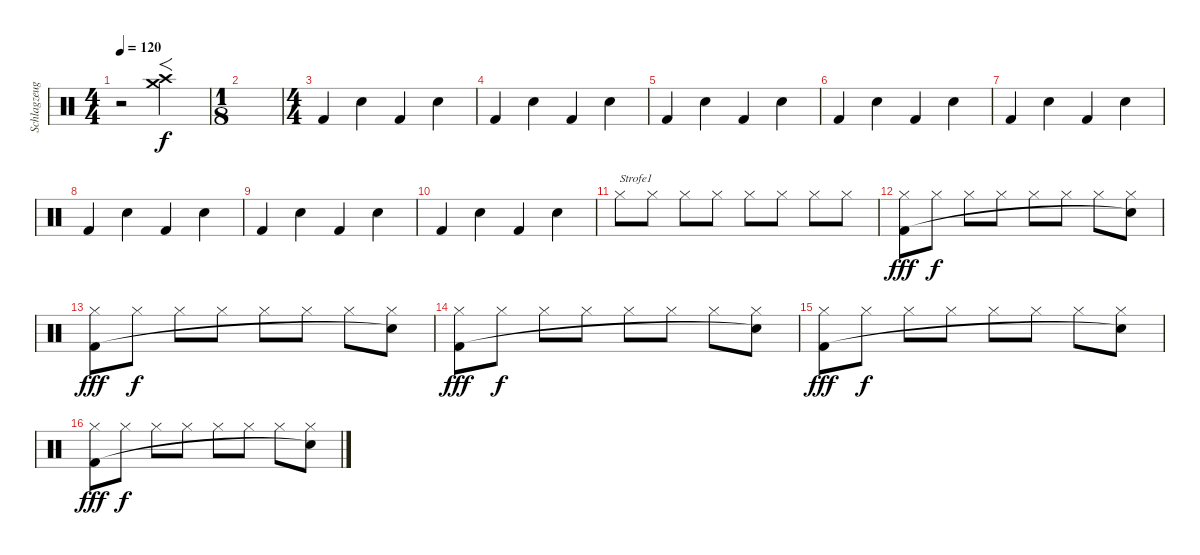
\track ("Schlagzeug" "Schlagzeug") {instrument percussion}
\staff {score}
\articulation defaults
\ts (4 4)
\tempo 120
\clef neutral
\ks c
r.2{dy f} ("Crash medium (hit)" "Crash high (hit)").2{f} |
\ts (1 8)
|
\ts (4 4)
"Kick (hit) 2".4 "Snare (hit) 2".4 "Kick (hit) 2".4 "Snare (hit) 2".4 |
"Kick (hit) 2".4 "Snare (hit) 2".4 "Kick (hit) 2".4 "Snare (hit) 2".4 |
"Kick (hit) 2".4 "Snare (hit) 2".4 "Kick (hit) 2".4 "Snare (hit) 2".4 |
"Kick (hit) 2".4 "Snare (hit) 2".4 "Kick (hit) 2".4 "Snare (hit) 2".4 |
"Kick (hit) 2".4 "Snare (hit) 2".4 "Kick (hit) 2".4 "Snare (hit) 2".4 |
"Kick (hit) 2".4 "Snare (hit) 2".4 "Kick (hit) 2".4 "Snare (hit) 2".4 |
"Kick (hit) 2".4 "Snare (hit) 2".4 "Kick (hit) 2".4 "Snare (hit) 2".4 |
"Kick (hit) 2".4 "Snare (hit) 2".4 "Kick (hit) 2".4 "Snare (hit) 2".4 |
"Hi-Hat (closed)".8{txt "Strofe1"} "Hi-Hat (closed)".8 "Hi-Hat (closed)".8 "Hi-Hat (closed)".8 "Hi-Hat (closed)".8 "Hi-Hat (closed)".8 "Hi-Hat (closed)".8 "Hi-Hat (closed)".8 |
("Hi-Hat (closed)" "Kick (hit) 2").8{dy fff} "Hi-Hat (closed)".8{dy f} "Hi-Hat (closed)".8 "Hi-Hat (closed)".8 "Hi-Hat (closed)".8 "Hi-Hat (closed)".8 "Hi-Hat (closed)".8 ("Hi-Hat (closed)" "Snare (hit)"{t}).8 |
("Hi-Hat (closed)" "Kick (hit) 2").8{dy fff} "Hi-Hat (closed)".8{dy f} "Hi-Hat (closed)".8 "Hi-Hat (closed)".8 "Hi-Hat (closed)".8 "Hi-Hat (closed)".8 "Hi-Hat (closed)".8 ("Hi-Hat (closed)" "Snare (hit)"{t}).8 |
("Hi-Hat (closed)" "Kick (hit) 2").8{dy fff} "Hi-Hat (closed)".8{dy f} "Hi-Hat (closed)".8 "Hi-Hat (closed)".8 "Hi-Hat (closed)".8 "Hi-Hat (closed)".8 "Hi-Hat (closed)".8 ("Hi-Hat (closed)" "Snare (hit)"{t}).8 |
("Hi-Hat (closed)" "Kick (hit) 2").8{dy fff} "Hi-Hat (closed)".8{dy f} "Hi-Hat (closed)".8 "Hi-Hat (closed)".8 "Hi-Hat (closed)".8 "Hi-Hat (closed)".8 "Hi-Hat (closed)".8 ("Hi-Hat (closed)" "Snare (hit)"{t}).8 |
("Hi-Hat (closed)" "Kick (hit) 2").8{dy fff} "Hi-Hat (closed)".8{dy f} "Hi-Hat (closed)".8 "Hi-Hat (closed)".8 "Hi-Hat (closed)".8 "Hi-Hat (closed)".8 "Hi-Hat (closed)".8 ("Hi-Hat (closed)" "Snare (hit)"{t}).8
